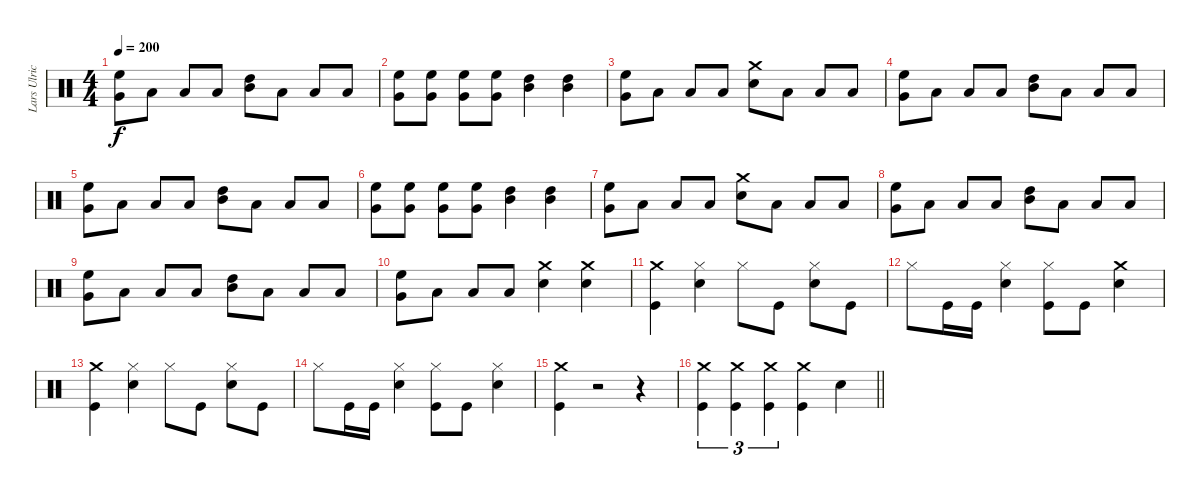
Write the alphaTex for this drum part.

\track ("Lars Ulrich (Drums)" "Lars Ulric") {instrument percussion}
\staff {score}
\articulation defaults
\ts (4 4)
\tempo 200
\clef neutral
\ks c
("High Floor Tom (hit)" "Very Low Tom (hit)").8{dy f} "Low Tom (hit)".8 "Low Tom (hit)".8 "Low Tom (hit)".8 ("Mid Tom (hit)" "High Tom (hit)").8 "Low Tom (hit)".8 "Low Tom (hit)".8 "Low Tom (hit)".8 |
("High Floor Tom (hit)" "Very Low Tom (hit)").8 ("High Floor Tom (hit)" "Very Low Tom (hit)").8 ("High Floor Tom (hit)" "Very Low Tom (hit)").8 ("High Floor Tom (hit)" "Very Low Tom (hit)").8 ("Mid Tom (hit)" "High Tom (hit)").4 ("Mid Tom (hit)" "High Tom (hit)").4 |
("Very Low Tom (hit)" "High Floor Tom (hit)").8 "Low Tom (hit)".8 "Low Tom (hit)".8 "Low Tom (hit)".8 ("Crash medium (hit)" "Snare (hit) 2").8 "Low Tom (hit)".8 "Low Tom (hit)".8 "Low Tom (hit)".8 |
("High Floor Tom (hit)" "Very Low Tom (hit)").8 "Low Tom (hit)".8 "Low Tom (hit)".8 "Low Tom (hit)".8 ("Mid Tom (hit)" "High Tom (hit)").8 "Low Tom (hit)".8 "Low Tom (hit)".8 "Low Tom (hit)".8 |
("High Floor Tom (hit)" "Very Low Tom (hit)").8 "Low Tom (hit)".8 "Low Tom (hit)".8 "Low Tom (hit)".8 ("Mid Tom (hit)" "High Tom (hit)").8 "Low Tom (hit)".8 "Low Tom (hit)".8 "Low Tom (hit)".8 |
("High Floor Tom (hit)" "Very Low Tom (hit)").8 ("High Floor Tom (hit)" "Very Low Tom (hit)").8 ("High Floor Tom (hit)" "Very Low Tom (hit)").8 ("High Floor Tom (hit)" "Very Low Tom (hit)").8 ("Mid Tom (hit)" "High Tom (hit)").4 ("Mid Tom (hit)" "High Tom (hit)").4 |
("Very Low Tom (hit)" "High Floor Tom (hit)").8 "Low Tom (hit)".8 "Low Tom (hit)".8 "Low Tom (hit)".8 ("Crash medium (hit)" "Snare (hit) 2").8 "Low Tom (hit)".8 "Low Tom (hit)".8 "Low Tom (hit)".8 |
("High Floor Tom (hit)" "Very Low Tom (hit)").8 "Low Tom (hit)".8 "Low Tom (hit)".8 "Low Tom (hit)".8 ("Mid Tom (hit)" "High Tom (hit)").8 "Low Tom (hit)".8 "Low Tom (hit)".8 "Low Tom (hit)".8 |
("High Floor Tom (hit)" "Very Low Tom (hit)").8 "Low Tom (hit)".8 "Low Tom (hit)".8 "Low Tom (hit)".8 ("Mid Tom (hit)" "High Tom (hit)").8 "Low Tom (hit)".8 "Low Tom (hit)".8 "Low Tom (hit)".8 |
("Very Low Tom (hit)" "High Floor Tom (hit)").8 "Low Tom (hit)".8 "Low Tom (hit)".8 "Low Tom (hit)".8 ("Crash medium (hit)" "Snare (hit) 2").4 ("Crash medium (hit)" "Snare (hit) 2").4 |
("Kick (hit)" "Crash medium (hit)").4 ("Hi-Hat (closed)" "Snare (hit) 2").4 "Hi-Hat (closed)".8 "Kick (hit)".8 ("Snare (hit) 2" "Hi-Hat (closed)").8 "Kick (hit)".8 |
"Hi-Hat (closed)".8 "Kick (hit)".16 "Kick (hit)".16 ("Snare (hit) 2" "Hi-Hat (closed)").4 ("Hi-Hat (closed)" "Kick (hit)").8 "Kick (hit)".8 ("Crash medium (hit)" "Snare (hit) 2").4 |
("Kick (hit)" "Crash medium (hit)").4 ("Hi-Hat (closed)" "Snare (hit) 2").4 "Hi-Hat (closed)".8 "Kick (hit)".8 ("Snare (hit) 2" "Hi-Hat (closed)").8 "Kick (hit)".8 |
"Hi-Hat (closed)".8 "Kick (hit)".16 "Kick (hit)".16 ("Snare (hit) 2" "Hi-Hat (closed)").4 ("Hi-Hat (closed)" "Kick (hit)").8 "Kick (hit)".8 ("Snare (hit) 2" "Hi-Hat (closed)").4 |
("Crash medium (hit)" "Kick (hit)").4 r.2 r.4 |
\barLineRight lightlight
("Kick (hit)" "Crash medium (hit)").4{tu (3 2)} ("Kick (hit)" "Crash medium (hit)").4{tu (3 2)} ("Kick (hit)" "Crash medium (hit)").4{tu (3 2)} ("Kick (hit)" "Crash medium (hit)").4 "Snare (hit) 2".4
